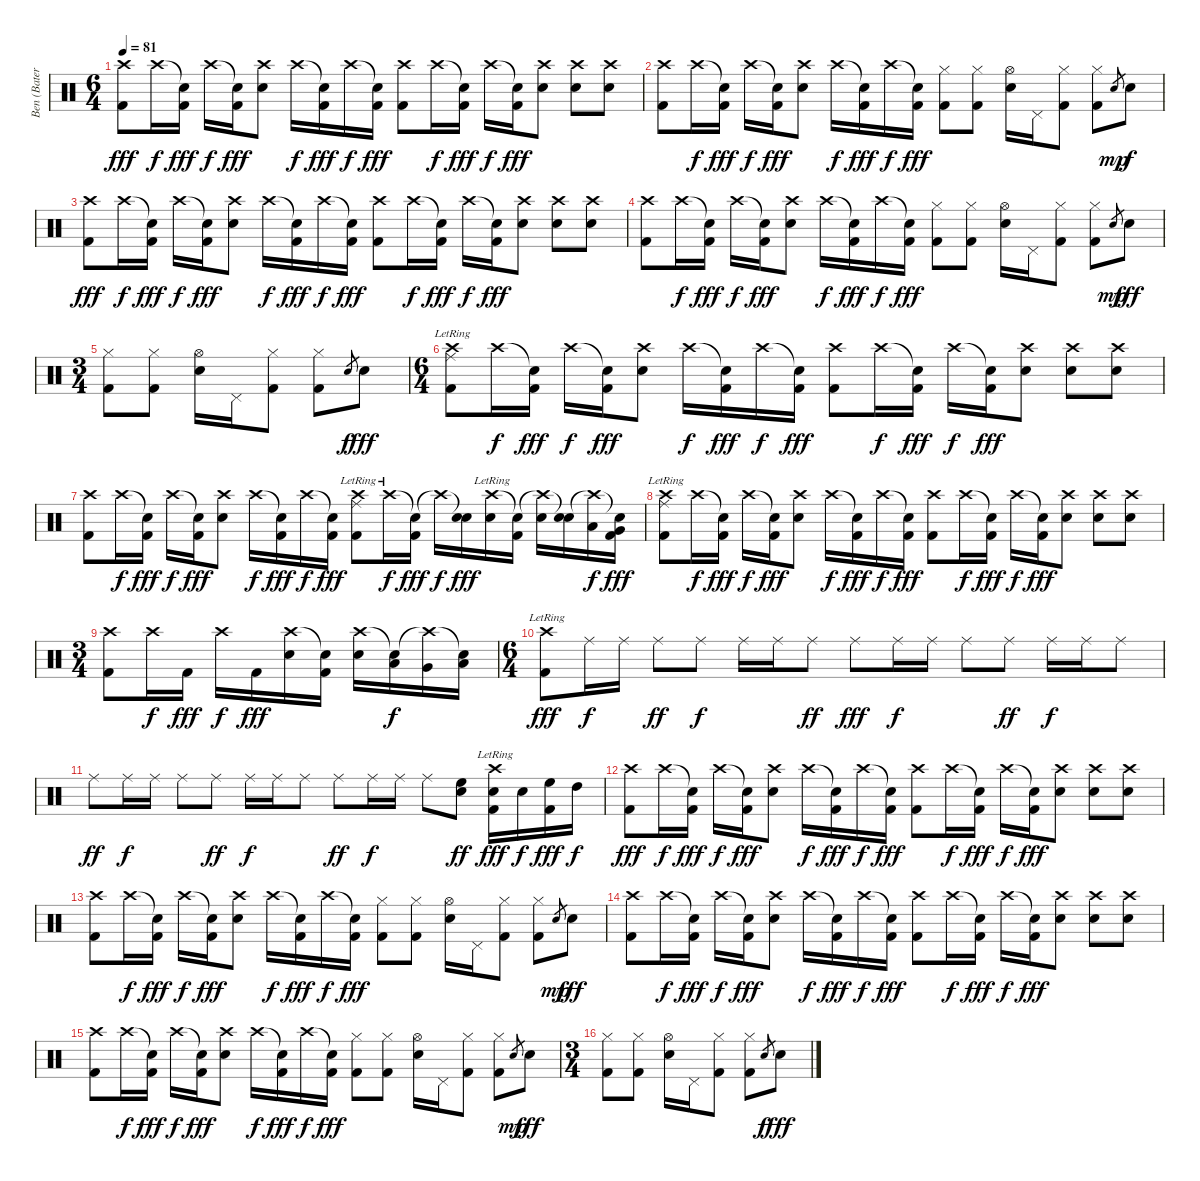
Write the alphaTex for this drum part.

\track ("Ben (Bateria)" "Ben (Bater") {instrument percussion}
\staff {score}
\articulation defaults
\ts (6 4)
\tempo 81
\clef neutral
\ks c
("Crash high (hit)" "Kick (hit) 2").8{dy fff} "Crash high (hit)".16{dy f} ("Snare (hit)"{t} "Kick (hit) 2").16{dy fff} "Crash high (hit)".16{dy f} ("Snare (hit)"{t} "Kick (hit) 2").16{dy fff} ("Crash high (hit)" "Snare (hit) 2").8 "Crash high (hit)".16{dy f} ("Snare (hit)"{t} "Kick (hit) 2").16{dy fff} "Crash high (hit)".16{dy f} ("Snare (hit)"{t} "Kick (hit) 2").16{dy fff} ("Crash high (hit)" "Kick (hit) 2").8 "Crash high (hit)".16{dy f} ("Snare (hit)"{t} "Kick (hit) 2").16{dy fff} "Crash high (hit)".16{dy f} ("Snare (hit)"{t} "Kick (hit) 2").16{dy fff} ("Crash high (hit)" "Snare (hit) 2").8 ("Crash high (hit)" "Snare (hit) 2").8 ("Crash high (hit)" "Snare (hit) 2").8 |
("Crash high (hit)" "Kick (hit) 2").8 "Crash high (hit)".16{dy f} ("Snare (hit)"{t} "Kick (hit) 2").16{dy fff} "Crash high (hit)".16{dy f} ("Snare (hit)"{t} "Kick (hit) 2").16{dy fff} ("Crash high (hit)" "Snare (hit) 2").8 "Crash high (hit)".16{dy f} ("Snare (hit)"{t} "Kick (hit) 2").16{dy fff} "Crash high (hit)".16{dy f} ("Snare (hit)"{t} "Kick (hit) 2").16{dy fff} ("Hi-Hat (closed)" "Kick (hit) 2").8 ("Hi-Hat (closed)" "Kick (hit) 2").8 ("Hi-Hat (open)" "Snare (hit) 2").16 "Pedal Hi-Hat (hit)".16 ("Hi-Hat (closed)" "Kick (hit) 2").8 ("Hi-Hat (closed)" "Kick (hit) 2").8 "Snare (hit) 2".8{gr dy mp} "Snare (hit) 2".8{dy f} |
("Crash high (hit)" "Kick (hit) 2").8{dy fff} "Crash high (hit)".16{dy f} ("Snare (hit)"{t} "Kick (hit) 2").16{dy fff} "Crash high (hit)".16{dy f} ("Snare (hit)"{t} "Kick (hit) 2").16{dy fff} ("Crash high (hit)" "Snare (hit) 2").8 "Crash high (hit)".16{dy f} ("Snare (hit)"{t} "Kick (hit) 2").16{dy fff} "Crash high (hit)".16{dy f} ("Snare (hit)"{t} "Kick (hit) 2").16{dy fff} ("Crash high (hit)" "Kick (hit) 2").8 "Crash high (hit)".16{dy f} ("Snare (hit)"{t} "Kick (hit) 2").16{dy fff} "Crash high (hit)".16{dy f} ("Snare (hit)"{t} "Kick (hit) 2").16{dy fff} ("Crash high (hit)" "Snare (hit) 2").8 ("Crash high (hit)" "Snare (hit) 2").8 ("Crash high (hit)" "Snare (hit) 2").8 |
("Crash high (hit)" "Kick (hit) 2").8 "Crash high (hit)".16{dy f} ("Snare (hit)"{t} "Kick (hit) 2").16{dy fff} "Crash high (hit)".16{dy f} ("Snare (hit)"{t} "Kick (hit) 2").16{dy fff} ("Crash high (hit)" "Snare (hit) 2").8 "Crash high (hit)".16{dy f} ("Snare (hit)"{t} "Kick (hit) 2").16{dy fff} "Crash high (hit)".16{dy f} ("Snare (hit)"{t} "Kick (hit) 2").16{dy fff} ("Hi-Hat (closed)" "Kick (hit) 2").8 ("Hi-Hat (closed)" "Kick (hit) 2").8 ("Hi-Hat (open)" "Snare (hit) 2").16 "Pedal Hi-Hat (hit)".16 ("Hi-Hat (closed)" "Kick (hit) 2").8 ("Hi-Hat (closed)" "Kick (hit) 2").8 "Snare (hit) 2".8{gr dy mp} "Snare (hit) 2".8{dy fff} |
\ts (3 4)
("Hi-Hat (closed)" "Kick (hit) 2").8 ("Hi-Hat (closed)" "Kick (hit) 2").8 ("Hi-Hat (open)" "Snare (hit) 2").16 "Pedal Hi-Hat (hit)".16 ("Hi-Hat (closed)" "Kick (hit) 2").8 ("Hi-Hat (closed)" "Kick (hit) 2").8 "Snare (hit) 2".8{gr dy f} "Snare (hit) 2".8{dy fff} |
\ts (6 4)
("Crash high (hit)" "Ride (middle)"{lr} "Kick (hit) 2").8 "Crash high (hit)".16{dy f} ("Snare (hit)"{t} "Kick (hit) 2").16{dy fff} "Crash high (hit)".16{dy f} ("Snare (hit)"{t} "Kick (hit) 2").16{dy fff} ("Crash high (hit)" "Snare (hit) 2").8 "Crash high (hit)".16{dy f} ("Snare (hit)"{t} "Kick (hit) 2").16{dy fff} "Crash high (hit)".16{dy f} ("Snare (hit)"{t} "Kick (hit) 2").16{dy fff} ("Crash high (hit)" "Kick (hit) 2").8 "Crash high (hit)".16{dy f} ("Snare (hit)"{t} "Kick (hit) 2").16{dy fff} "Crash high (hit)".16{dy f} ("Snare (hit)"{t} "Kick (hit) 2").16{dy fff} ("Crash high (hit)" "Snare (hit) 2").8 ("Crash high (hit)" "Snare (hit) 2").8 ("Crash high (hit)" "Snare (hit) 2").8 |
("Crash high (hit)" "Kick (hit) 2").8 "Crash high (hit)".16{dy f} ("Snare (hit)"{t} "Kick (hit) 2").16{dy fff} "Crash high (hit)".16{dy f} ("Snare (hit)"{t} "Kick (hit) 2").16{dy fff} ("Crash high (hit)" "Snare (hit) 2").8 "Crash high (hit)".16{dy f} ("Snare (hit)"{t} "Kick (hit) 2").16{dy fff} "Crash high (hit)".16{dy f} ("Snare (hit)"{t} "Kick (hit) 2").16{dy fff} ("Crash high (hit)" "Ride (middle)"{lr} "Kick (hit) 2").8 "Crash high (hit)"{lr}.16{dy f} ("Snare (hit)"{t} "Kick (hit) 2").16{dy fff} "Crash high (hit)"{t}.16{dy f} ("Snare (hit)"{t} "Snare (hit) 2").16{dy fff} ("Crash high (hit)"{lr} "Snare (hit) 2").16 ("Snare (hit)"{t} "Kick (hit) 2").16 ("Crash high (hit)"{t} "Snare (hit) 2").16 ("Snare (hit)"{t} "Snare (hit) 2").16 ("Crash high (hit)"{t} "Low Tom (hit)").16{dy f} ("Snare (hit)"{t} "Very Low Tom (hit)" "Kick (hit) 2").16{dy fff} |
("Crash high (hit)" "Ride (middle)"{lr} "Kick (hit) 2").8 "Crash high (hit)".16{dy f} ("Snare (hit)"{t} "Kick (hit) 2").16{dy fff} "Crash high (hit)".16{dy f} ("Snare (hit)"{t} "Kick (hit) 2").16{dy fff} ("Crash high (hit)" "Snare (hit) 2").8 "Crash high (hit)".16{dy f} ("Snare (hit)"{t} "Kick (hit) 2").16{dy fff} "Crash high (hit)".16{dy f} ("Snare (hit)"{t} "Kick (hit) 2").16{dy fff} ("Crash high (hit)" "Kick (hit) 2").8 "Crash high (hit)".16{dy f} ("Snare (hit)"{t} "Kick (hit) 2").16{dy fff} "Crash high (hit)".16{dy f} ("Snare (hit)"{t} "Kick (hit) 2").16{dy fff} ("Crash high (hit)" "Snare (hit) 2").8 ("Crash high (hit)" "Snare (hit) 2").8 ("Crash high (hit)" "Snare (hit) 2").8 |
\ts (3 4)
("Crash high (hit)" "Kick (hit) 2").8 "Crash high (hit)".16{dy f} "Kick (hit) 2".16{dy fff} "Crash high (hit)".16{dy f} "Kick (hit) 2".16{dy fff} ("Crash high (hit)" "Snare (hit) 2").16 ("Snare (hit)"{t} "Kick (hit) 2").16 ("Crash high (hit)" "Snare (hit) 2").16 ("Snare (hit)"{t} "Low Tom (hit)").16{dy f} ("Crash high (hit)"{t} "Very Low Tom (hit)").16 ("Snare (hit)"{t} "Low Floor Tom (hit)").16 |
\ts (6 4)
("Crash high (hit)"{lr} "Kick (hit) 2").8{dy fff} "Ride (middle)".16{dy f} "Ride (middle)".16 "Ride (middle)".8{dy ff} "Ride (middle)".8{dy f} "Ride (middle)".16 "Ride (middle)".16 "Ride (middle)".8{dy ff} "Ride (middle)".8{dy fff} "Ride (middle)".16{dy f} "Ride (middle)".16 "Ride (middle)".8 "Ride (middle)".8{dy ff} "Ride (middle)".16{dy f} "Ride (middle)".16 "Ride (middle)".8 |
"Ride (middle)".8{dy ff} "Ride (middle)".16{dy f} "Ride (middle)".16 "Ride (middle)".8 "Ride (middle)".8{dy ff} "Ride (middle)".16{dy f} "Ride (middle)".16 "Ride (middle)".8 "Ride (middle)".8{dy ff} "Ride (middle)".16{dy f} "Ride (middle)".16 "Ride (middle)".8 ("Snare (hit) 2" "High Floor Tom (hit)").8{dy ff} ("Crash high (hit)"{lr} "Snare (hit) 2" "Kick (hit) 2").16{dy fff} "Snare (hit) 2".16{dy f} ("High Floor Tom (hit)" "Kick (hit) 2").16{dy fff} "High Tom (hit)".16{dy f} |
("Crash high (hit)" "Kick (hit) 2").8{dy fff} "Crash high (hit)".16{dy f} ("Snare (hit)"{t} "Kick (hit) 2").16{dy fff} "Crash high (hit)".16{dy f} ("Snare (hit)"{t} "Kick (hit) 2").16{dy fff} ("Crash high (hit)" "Snare (hit) 2").8 "Crash high (hit)".16{dy f} ("Snare (hit)"{t} "Kick (hit) 2").16{dy fff} "Crash high (hit)".16{dy f} ("Snare (hit)"{t} "Kick (hit) 2").16{dy fff} ("Crash high (hit)" "Kick (hit) 2").8 "Crash high (hit)".16{dy f} ("Snare (hit)"{t} "Kick (hit) 2").16{dy fff} "Crash high (hit)".16{dy f} ("Snare (hit)"{t} "Kick (hit) 2").16{dy fff} ("Crash high (hit)" "Snare (hit) 2").8 ("Crash high (hit)" "Snare (hit) 2").8 ("Crash high (hit)" "Snare (hit) 2").8 |
("Crash high (hit)" "Kick (hit) 2").8 "Crash high (hit)".16{dy f} ("Snare (hit)"{t} "Kick (hit) 2").16{dy fff} "Crash high (hit)".16{dy f} ("Snare (hit)"{t} "Kick (hit) 2").16{dy fff} ("Crash high (hit)" "Snare (hit) 2").8 "Crash high (hit)".16{dy f} ("Snare (hit)"{t} "Kick (hit) 2").16{dy fff} "Crash high (hit)".16{dy f} ("Snare (hit)"{t} "Kick (hit) 2").16{dy fff} ("Hi-Hat (closed)" "Kick (hit) 2").8 ("Hi-Hat (closed)" "Kick (hit) 2").8 ("Hi-Hat (open)" "Snare (hit) 2").16 "Pedal Hi-Hat (hit)".16 ("Hi-Hat (closed)" "Kick (hit) 2").8 ("Hi-Hat (closed)" "Kick (hit) 2").8 "Snare (hit) 2".8{gr dy mp} "Snare (hit) 2".8{dy fff} |
("Crash high (hit)" "Kick (hit) 2").8 "Crash high (hit)".16{dy f} ("Snare (hit)"{t} "Kick (hit) 2").16{dy fff} "Crash high (hit)".16{dy f} ("Snare (hit)"{t} "Kick (hit) 2").16{dy fff} ("Crash high (hit)" "Snare (hit) 2").8 "Crash high (hit)".16{dy f} ("Snare (hit)"{t} "Kick (hit) 2").16{dy fff} "Crash high (hit)".16{dy f} ("Snare (hit)"{t} "Kick (hit) 2").16{dy fff} ("Crash high (hit)" "Kick (hit) 2").8 "Crash high (hit)".16{dy f} ("Snare (hit)"{t} "Kick (hit) 2").16{dy fff} "Crash high (hit)".16{dy f} ("Snare (hit)"{t} "Kick (hit) 2").16{dy fff} ("Crash high (hit)" "Snare (hit) 2").8 ("Crash high (hit)" "Snare (hit) 2").8 ("Crash high (hit)" "Snare (hit) 2").8 |
("Crash high (hit)" "Kick (hit) 2").8 "Crash high (hit)".16{dy f} ("Snare (hit)"{t} "Kick (hit) 2").16{dy fff} "Crash high (hit)".16{dy f} ("Snare (hit)"{t} "Kick (hit) 2").16{dy fff} ("Crash high (hit)" "Snare (hit) 2").8 "Crash high (hit)".16{dy f} ("Snare (hit)"{t} "Kick (hit) 2").16{dy fff} "Crash high (hit)".16{dy f} ("Snare (hit)"{t} "Kick (hit) 2").16{dy fff} ("Hi-Hat (closed)" "Kick (hit) 2").8 ("Hi-Hat (closed)" "Kick (hit) 2").8 ("Hi-Hat (open)" "Snare (hit) 2").16 "Pedal Hi-Hat (hit)".16 ("Hi-Hat (closed)" "Kick (hit) 2").8 ("Hi-Hat (closed)" "Kick (hit) 2").8 "Snare (hit) 2".8{gr dy mp} "Snare (hit) 2".8{dy fff} |
\ts (3 4)
("Hi-Hat (closed)" "Kick (hit) 2").8 ("Hi-Hat (closed)" "Kick (hit) 2").8 ("Hi-Hat (open)" "Snare (hit) 2").16 "Pedal Hi-Hat (hit)".16 ("Hi-Hat (closed)" "Kick (hit) 2").8 ("Hi-Hat (closed)" "Kick (hit) 2").8 "Snare (hit) 2".8{gr dy f} "Snare (hit) 2".8{dy fff}
